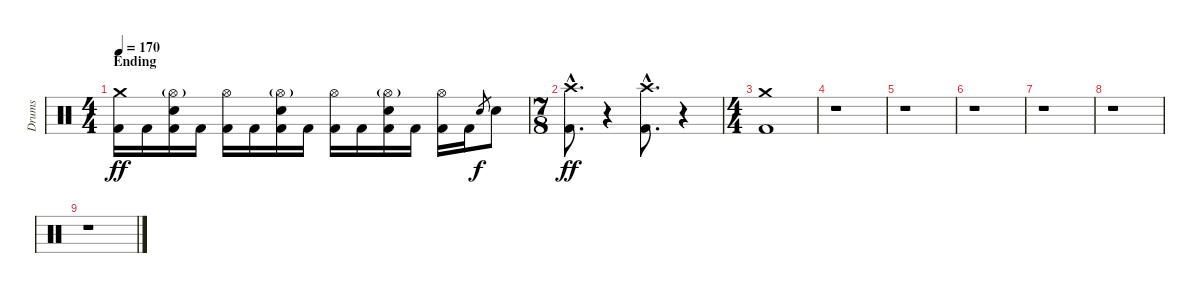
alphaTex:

\track ("Drums" "Drums") {instrument percussion}
\staff {score}
\articulation defaults
\ts (4 4)
\section ("" "Ending")
\tempo 170
\clef neutral
\ks c
("Crash medium (hit)" "Kick (hit) 2").16{dy ff} "Kick (hit) 2".16 ("Hi-Hat (open)"{g} "Electric Snare (hit)" "Kick (hit) 2").16 "Kick (hit) 2".16 ("Hi-Hat (open)" "Kick (hit) 2").16 "Kick (hit) 2".16 ("Hi-Hat (open)"{g} "Electric Snare (hit)" "Kick (hit) 2").16 "Kick (hit) 2".16 ("Hi-Hat (open)" "Kick (hit) 2").16 "Kick (hit) 2".16 ("Hi-Hat (open)"{g} "Electric Snare (hit)" "Kick (hit) 2").16 "Kick (hit) 2".16 ("Hi-Hat (open)" "Kick (hit) 2").16 "Kick (hit) 2".16 "Electric Snare (hit)".8{gr dy f} "Electric Snare (hit)".8 |
\ts (7 8)
("Crash high (hit)"{hac} "Kick (hit) 2"{hac}).8{d dy ff} r.4{volume 6} ("Crash high (hit)"{hac} "Kick (hit) 2"{hac}).8{d volume 13} r.4{volume 6} |
\ts (4 4)
("Crash medium (hit)" "Kick (hit) 2").1{volume 13} |
r.1 |
r.1 |
r.1 |
r.1 |
r.1 |
r.1
